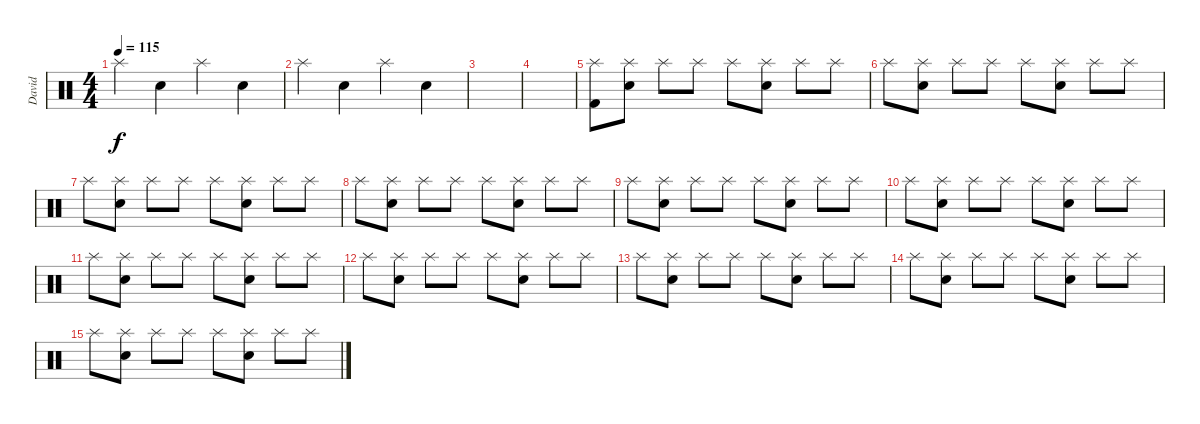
\track ("David" "David") {instrument percussion}
\staff {score}
\articulation defaults
\ts (4 4)
\tempo 115
\clef neutral
\ks c "Splash (hit)".4{dy f} "Electric Snare (hit)".4 "Splash (hit)".4 "Electric Snare (hit)".4
|
"Splash (hit)".4 "Electric Snare (hit)".4 "Splash (hit)".4 "Electric Snare (hit)".4 |
|
|
("Splash (hit)" "Kick (hit) 2").8 ("Splash (hit)" "Electric Snare (hit)").8 "Splash (hit)".8 "Splash (hit)".8 "Splash (hit)".8 ("Splash (hit)" "Electric Snare (hit)").8 "Splash (hit)".8 "Splash (hit)".8 |
"Splash (hit)".8 ("Splash (hit)" "Electric Snare (hit)").8 "Splash (hit)".8 "Splash (hit)".8 "Splash (hit)".8 ("Splash (hit)" "Electric Snare (hit)").8 "Splash (hit)".8 "Splash (hit)".8 |
"Splash (hit)".8 ("Splash (hit)" "Electric Snare (hit)").8 "Splash (hit)".8 "Splash (hit)".8 "Splash (hit)".8 ("Splash (hit)" "Electric Snare (hit)").8 "Splash (hit)".8 "Splash (hit)".8 |
"Splash (hit)".8 ("Splash (hit)" "Electric Snare (hit)").8 "Splash (hit)".8 "Splash (hit)".8 "Splash (hit)".8 ("Splash (hit)" "Electric Snare (hit)").8 "Splash (hit)".8 "Splash (hit)".8 |
"Splash (hit)".8 ("Splash (hit)" "Electric Snare (hit)").8 "Splash (hit)".8 "Splash (hit)".8 "Splash (hit)".8 ("Splash (hit)" "Electric Snare (hit)").8 "Splash (hit)".8 "Splash (hit)".8 |
"Splash (hit)".8 ("Splash (hit)" "Electric Snare (hit)").8 "Splash (hit)".8 "Splash (hit)".8 "Splash (hit)".8 ("Splash (hit)" "Electric Snare (hit)").8 "Splash (hit)".8 "Splash (hit)".8 |
"Splash (hit)".8 ("Splash (hit)" "Electric Snare (hit)").8 "Splash (hit)".8 "Splash (hit)".8 "Splash (hit)".8 ("Splash (hit)" "Electric Snare (hit)").8 "Splash (hit)".8 "Splash (hit)".8 |
"Splash (hit)".8 ("Splash (hit)" "Electric Snare (hit)").8 "Splash (hit)".8 "Splash (hit)".8 "Splash (hit)".8 ("Splash (hit)" "Electric Snare (hit)").8 "Splash (hit)".8 "Splash (hit)".8 |
"Splash (hit)".8 ("Splash (hit)" "Electric Snare (hit)").8 "Splash (hit)".8 "Splash (hit)".8 "Splash (hit)".8 ("Splash (hit)" "Electric Snare (hit)").8 "Splash (hit)".8 "Splash (hit)".8 |
"Splash (hit)".8 ("Splash (hit)" "Electric Snare (hit)").8 "Splash (hit)".8 "Splash (hit)".8 "Splash (hit)".8 ("Splash (hit)" "Electric Snare (hit)").8 "Splash (hit)".8 "Splash (hit)".8 |
"Splash (hit)".8 ("Splash (hit)" "Electric Snare (hit)").8 "Splash (hit)".8 "Splash (hit)".8 "Splash (hit)".8 ("Splash (hit)" "Electric Snare (hit)").8 "Splash (hit)".8 "Splash (hit)".8
